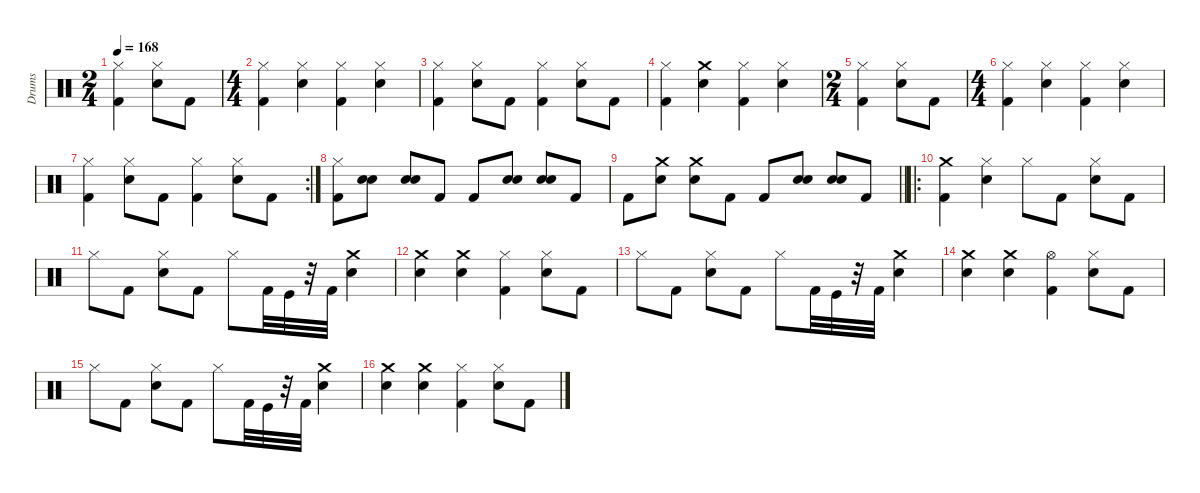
\defaultSystemsLayout 4
\hideDynamics
\bracketExtendMode nobrackets
\firstSystemTrackNameMode fullname
\otherSystemsTrackNameOrientation horizontal
\track ("Drums" "drm.") {instrument percussion}
\staff {score}
\articulation defaults
\ts (2 4)
\beaming (8 2 2)
\tempo 168
\clef neutral
\ks c
("Hi-Hat (closed)" "Kick (hit) 2").4{dy fff beam Down} ("Snare (hit) 2" "Hi-Hat (closed)").8{beam Down} "Kick (hit) 2".8{beam Down} |
\ts (4 4)
\beaming (8 2 2 2 2)
("Kick (hit) 2" "Hi-Hat (closed)").4{beam Down} ("Snare (hit) 2" "Hi-Hat (closed)").4{beam Down} ("Kick (hit) 2" "Hi-Hat (closed)").4{beam Down} ("Snare (hit) 2" "Hi-Hat (closed)").4{beam Down} |
("Hi-Hat (closed)" "Kick (hit) 2").4{beam Down} ("Snare (hit) 2" "Hi-Hat (closed)").8{beam Down} "Kick (hit) 2".8{beam Down} ("Kick (hit) 2" "Hi-Hat (closed)").4{beam Down} ("Hi-Hat (closed)" "Snare (hit) 2").8{beam Down} "Kick (hit) 2".8{beam Down} |
("Hi-Hat (closed)" "Kick (hit) 2").4{beam Down} ("Crash medium (hit)" "Snare (hit) 2").4{beam Down} ("Hi-Hat (closed)" "Kick (hit) 2").4{beam Down} ("Snare (hit) 2" "Hi-Hat (closed)").4{beam Down} |
\ts (2 4)
\beaming (8 2 2)
("Hi-Hat (closed)" "Kick (hit) 2").4{beam Down} ("Snare (hit) 2" "Hi-Hat (closed)").8{beam Down} "Kick (hit) 2".8{beam Down} |
\ts (4 4)
\beaming (8 2 2 2 2)
("Kick (hit) 2" "Hi-Hat (closed)").4{beam Down} ("Snare (hit) 2" "Hi-Hat (closed)").4{beam Down} ("Kick (hit) 2" "Hi-Hat (closed)").4{beam Down} ("Snare (hit) 2" "Hi-Hat (closed)").4{beam Down} |
\rc 2
("Hi-Hat (closed)" "Kick (hit) 2").4{beam Down} ("Snare (hit) 2" "Hi-Hat (closed)").8{beam Down} "Kick (hit) 2".8{beam Down} ("Kick (hit) 2" "Hi-Hat (closed)").4{beam Down} ("Hi-Hat (closed)" "Snare (hit) 2").8{beam Down} "Kick (hit) 2".8{beam Down} |
("Kick (hit) 2" "Hi-Hat (closed)").8{beam Down} ("Snare (hit) 2" "Snare (hit) 2").8{dy f beam Down} ("Snare (hit) 2" "Snare (hit) 2").8{beam Up} "Kick (hit) 2".8{dy fff beam Up} "Kick (hit) 2".8{beam Up} ("Snare (hit) 2" "Snare (hit) 2").8{dy f beam Up} ("Snare (hit) 2" "Snare (hit) 2").8{beam Up} "Kick (hit) 2".8{dy fff beam Up} |
\barLineRight lightlight "Kick (hit) 2".8{beam Down}
("Snare (hit) 2" "Crash medium (hit)").8{beam Down} ("Snare (hit) 2" "Crash medium (hit)").8{beam Down} "Kick (hit) 2".8{beam Down} "Kick (hit) 2".8{beam Up} ("Snare (hit) 2" "Snare (hit) 2").8{dy f beam Up} ("Snare (hit) 2" "Snare (hit) 2").8{beam Up} "Kick (hit) 2".8{dy fff beam Up} |
\ro
("Kick (hit) 2" "Crash medium (hit)").4{beam Down} ("Hi-Hat (closed)" "Snare (hit) 2").4{beam Down} "Hi-Hat (closed)".8{beam Down} "Kick (hit) 2".8{beam Down} ("Snare (hit) 2" "Hi-Hat (closed)").8{beam Down} "Kick (hit) 2".8{beam Down} |
"Hi-Hat (closed)".8{beam Down} "Kick (hit) 2".8{beam Down} ("Snare (hit) 2" "Hi-Hat (closed)").8{beam Down} "Kick (hit) 2".8{beam Down} "Hi-Hat (closed)".8{beam Down} "Kick (hit) 2".32{beam Down} "Kick (hit)".32{beam Down} r.32{beam Down} "Kick (hit) 2".32{beam Down} ("Crash medium (hit)" "Snare (hit) 2").4{beam Down} |
("Crash medium (hit)" "Snare (hit) 2").4{beam Down} ("Crash medium (hit)" "Snare (hit) 2").4{beam Down} ("Hi-Hat (closed)" "Kick (hit) 2").4{beam Down} ("Snare (hit) 2" "Hi-Hat (closed)").8{beam Down} "Kick (hit) 2".8{beam Down} |
"Hi-Hat (closed)".8{beam Down} "Kick (hit) 2".8{beam Down} ("Snare (hit) 2" "Hi-Hat (closed)").8{beam Down} "Kick (hit) 2".8{beam Down} "Hi-Hat (closed)".8{beam Down} "Kick (hit) 2".32{beam Down} "Kick (hit)".32{beam Down} r.32{beam Down} "Kick (hit) 2".32{beam Down} ("Crash medium (hit)" "Snare (hit) 2").4{beam Down} |
("Crash medium (hit)" "Snare (hit) 2").4{beam Down} ("Crash medium (hit)" "Snare (hit) 2").4{beam Down} ("Hi-Hat (open)" "Kick (hit) 2").4{beam Down} ("Snare (hit) 2" "Hi-Hat (closed)").8{beam Down} "Kick (hit) 2".8{beam Down} |
"Hi-Hat (closed)".8{beam Down} "Kick (hit) 2".8{beam Down} ("Snare (hit) 2" "Hi-Hat (closed)").8{beam Down} "Kick (hit) 2".8{beam Down} "Hi-Hat (closed)".8{beam Down} "Kick (hit) 2".32{beam Down} "Kick (hit)".32{beam Down} r.32{beam Down} "Kick (hit) 2".32{beam Down} ("Crash medium (hit)" "Snare (hit) 2").4{beam Down} |
("Crash medium (hit)" "Snare (hit) 2").4{beam Down} ("Crash medium (hit)" "Snare (hit) 2").4{beam Down} ("Hi-Hat (closed)" "Kick (hit) 2").4{beam Down} ("Snare (hit) 2" "Hi-Hat (closed)").8{beam Down} "Kick (hit) 2".8{beam Down}
